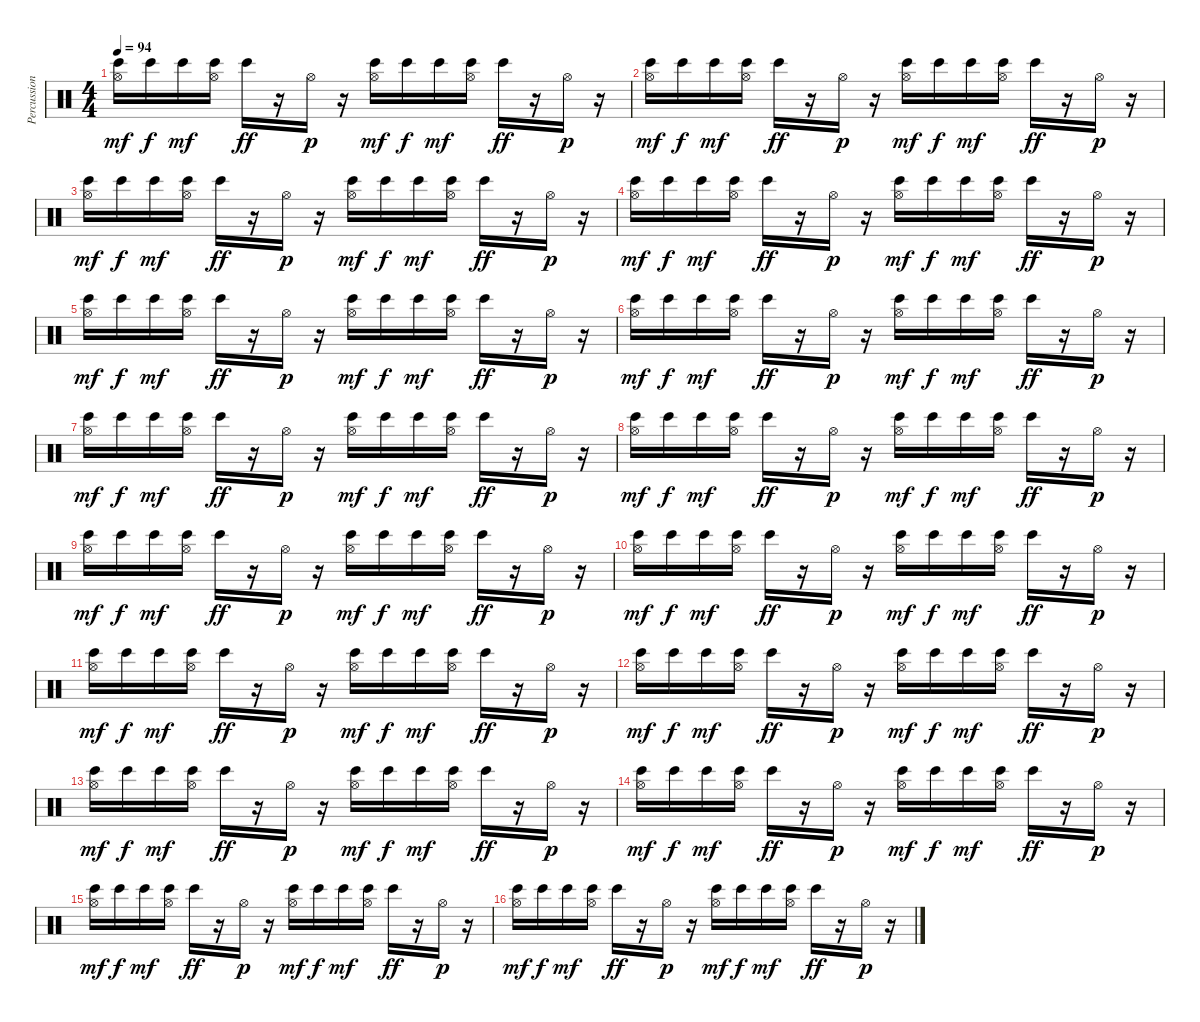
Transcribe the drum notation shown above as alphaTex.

\track ("Percussion Effekt" "Percussion") {instrument percussion}
\staff {score}
\articulation defaults
\ts (4 4)
\tempo 94
\clef neutral
\ks c
("Hi-Hat (open)" "Bongo High (hit)").16{dy mf} "Bongo High (hit)".16{dy f} "Bongo High (hit)".16{dy mf} ("Hi-Hat (open)" "Bongo High (hit)").16 "Bongo High (hit)".16{dy ff} r.16 "Hi-Hat (open)".16{dy p} r.16 ("Hi-Hat (open)" "Bongo High (hit)").16{dy mf} "Bongo High (hit)".16{dy f} "Bongo High (hit)".16{dy mf} ("Hi-Hat (open)" "Bongo High (hit)").16 "Bongo High (hit)".16{dy ff} r.16 "Hi-Hat (open)".16{dy p} r.16 |
("Hi-Hat (open)" "Bongo High (hit)").16{dy mf} "Bongo High (hit)".16{dy f} "Bongo High (hit)".16{dy mf} ("Hi-Hat (open)" "Bongo High (hit)").16 "Bongo High (hit)".16{dy ff} r.16 "Hi-Hat (open)".16{dy p} r.16 ("Hi-Hat (open)" "Bongo High (hit)").16{dy mf} "Bongo High (hit)".16{dy f} "Bongo High (hit)".16{dy mf} ("Hi-Hat (open)" "Bongo High (hit)").16 "Bongo High (hit)".16{dy ff} r.16 "Hi-Hat (open)".16{dy p} r.16 |
("Hi-Hat (open)" "Bongo High (hit)").16{dy mf} "Bongo High (hit)".16{dy f} "Bongo High (hit)".16{dy mf} ("Hi-Hat (open)" "Bongo High (hit)").16 "Bongo High (hit)".16{dy ff} r.16 "Hi-Hat (open)".16{dy p} r.16 ("Hi-Hat (open)" "Bongo High (hit)").16{dy mf} "Bongo High (hit)".16{dy f} "Bongo High (hit)".16{dy mf} ("Hi-Hat (open)" "Bongo High (hit)").16 "Bongo High (hit)".16{dy ff} r.16 "Hi-Hat (open)".16{dy p} r.16 |
("Hi-Hat (open)" "Bongo High (hit)").16{dy mf} "Bongo High (hit)".16{dy f} "Bongo High (hit)".16{dy mf} ("Hi-Hat (open)" "Bongo High (hit)").16 "Bongo High (hit)".16{dy ff} r.16 "Hi-Hat (open)".16{dy p} r.16 ("Hi-Hat (open)" "Bongo High (hit)").16{dy mf} "Bongo High (hit)".16{dy f} "Bongo High (hit)".16{dy mf} ("Hi-Hat (open)" "Bongo High (hit)").16 "Bongo High (hit)".16{dy ff} r.16 "Hi-Hat (open)".16{dy p} r.16 |
("Hi-Hat (open)" "Bongo High (hit)").16{dy mf} "Bongo High (hit)".16{dy f} "Bongo High (hit)".16{dy mf} ("Hi-Hat (open)" "Bongo High (hit)").16 "Bongo High (hit)".16{dy ff} r.16 "Hi-Hat (open)".16{dy p} r.16 ("Hi-Hat (open)" "Bongo High (hit)").16{dy mf} "Bongo High (hit)".16{dy f} "Bongo High (hit)".16{dy mf} ("Hi-Hat (open)" "Bongo High (hit)").16 "Bongo High (hit)".16{dy ff} r.16 "Hi-Hat (open)".16{dy p} r.16 |
("Hi-Hat (open)" "Bongo High (hit)").16{dy mf} "Bongo High (hit)".16{dy f} "Bongo High (hit)".16{dy mf} ("Hi-Hat (open)" "Bongo High (hit)").16 "Bongo High (hit)".16{dy ff} r.16 "Hi-Hat (open)".16{dy p} r.16 ("Hi-Hat (open)" "Bongo High (hit)").16{dy mf} "Bongo High (hit)".16{dy f} "Bongo High (hit)".16{dy mf} ("Hi-Hat (open)" "Bongo High (hit)").16 "Bongo High (hit)".16{dy ff} r.16 "Hi-Hat (open)".16{dy p} r.16 |
("Hi-Hat (open)" "Bongo High (hit)").16{dy mf} "Bongo High (hit)".16{dy f} "Bongo High (hit)".16{dy mf} ("Hi-Hat (open)" "Bongo High (hit)").16 "Bongo High (hit)".16{dy ff} r.16 "Hi-Hat (open)".16{dy p} r.16 ("Hi-Hat (open)" "Bongo High (hit)").16{dy mf} "Bongo High (hit)".16{dy f} "Bongo High (hit)".16{dy mf} ("Hi-Hat (open)" "Bongo High (hit)").16 "Bongo High (hit)".16{dy ff} r.16 "Hi-Hat (open)".16{dy p} r.16 |
("Hi-Hat (open)" "Bongo High (hit)").16{dy mf} "Bongo High (hit)".16{dy f} "Bongo High (hit)".16{dy mf} ("Hi-Hat (open)" "Bongo High (hit)").16 "Bongo High (hit)".16{dy ff} r.16 "Hi-Hat (open)".16{dy p} r.16 ("Hi-Hat (open)" "Bongo High (hit)").16{dy mf} "Bongo High (hit)".16{dy f} "Bongo High (hit)".16{dy mf} ("Hi-Hat (open)" "Bongo High (hit)").16 "Bongo High (hit)".16{dy ff} r.16 "Hi-Hat (open)".16{dy p} r.16 |
("Hi-Hat (open)" "Bongo High (hit)").16{dy mf} "Bongo High (hit)".16{dy f} "Bongo High (hit)".16{dy mf} ("Hi-Hat (open)" "Bongo High (hit)").16 "Bongo High (hit)".16{dy ff} r.16 "Hi-Hat (open)".16{dy p} r.16 ("Hi-Hat (open)" "Bongo High (hit)").16{dy mf} "Bongo High (hit)".16{dy f} "Bongo High (hit)".16{dy mf} ("Hi-Hat (open)" "Bongo High (hit)").16 "Bongo High (hit)".16{dy ff} r.16 "Hi-Hat (open)".16{dy p} r.16 |
("Hi-Hat (open)" "Bongo High (hit)").16{dy mf} "Bongo High (hit)".16{dy f} "Bongo High (hit)".16{dy mf} ("Hi-Hat (open)" "Bongo High (hit)").16 "Bongo High (hit)".16{dy ff} r.16 "Hi-Hat (open)".16{dy p} r.16 ("Hi-Hat (open)" "Bongo High (hit)").16{dy mf} "Bongo High (hit)".16{dy f} "Bongo High (hit)".16{dy mf} ("Hi-Hat (open)" "Bongo High (hit)").16 "Bongo High (hit)".16{dy ff} r.16 "Hi-Hat (open)".16{dy p} r.16 |
("Hi-Hat (open)" "Bongo High (hit)").16{dy mf} "Bongo High (hit)".16{dy f} "Bongo High (hit)".16{dy mf} ("Hi-Hat (open)" "Bongo High (hit)").16 "Bongo High (hit)".16{dy ff} r.16 "Hi-Hat (open)".16{dy p} r.16 ("Hi-Hat (open)" "Bongo High (hit)").16{dy mf} "Bongo High (hit)".16{dy f} "Bongo High (hit)".16{dy mf} ("Hi-Hat (open)" "Bongo High (hit)").16 "Bongo High (hit)".16{dy ff} r.16 "Hi-Hat (open)".16{dy p} r.16 |
("Hi-Hat (open)" "Bongo High (hit)").16{dy mf} "Bongo High (hit)".16{dy f} "Bongo High (hit)".16{dy mf} ("Hi-Hat (open)" "Bongo High (hit)").16 "Bongo High (hit)".16{dy ff} r.16 "Hi-Hat (open)".16{dy p} r.16 ("Hi-Hat (open)" "Bongo High (hit)").16{dy mf} "Bongo High (hit)".16{dy f} "Bongo High (hit)".16{dy mf} ("Hi-Hat (open)" "Bongo High (hit)").16 "Bongo High (hit)".16{dy ff} r.16 "Hi-Hat (open)".16{dy p} r.16 |
("Hi-Hat (open)" "Bongo High (hit)").16{dy mf} "Bongo High (hit)".16{dy f} "Bongo High (hit)".16{dy mf} ("Hi-Hat (open)" "Bongo High (hit)").16 "Bongo High (hit)".16{dy ff} r.16 "Hi-Hat (open)".16{dy p} r.16 ("Hi-Hat (open)" "Bongo High (hit)").16{dy mf} "Bongo High (hit)".16{dy f} "Bongo High (hit)".16{dy mf} ("Hi-Hat (open)" "Bongo High (hit)").16 "Bongo High (hit)".16{dy ff} r.16 "Hi-Hat (open)".16{dy p} r.16 |
("Hi-Hat (open)" "Bongo High (hit)").16{dy mf} "Bongo High (hit)".16{dy f} "Bongo High (hit)".16{dy mf} ("Hi-Hat (open)" "Bongo High (hit)").16 "Bongo High (hit)".16{dy ff} r.16 "Hi-Hat (open)".16{dy p} r.16 ("Hi-Hat (open)" "Bongo High (hit)").16{dy mf} "Bongo High (hit)".16{dy f} "Bongo High (hit)".16{dy mf} ("Hi-Hat (open)" "Bongo High (hit)").16 "Bongo High (hit)".16{dy ff} r.16 "Hi-Hat (open)".16{dy p} r.16 |
("Hi-Hat (open)" "Bongo High (hit)").16{dy mf} "Bongo High (hit)".16{dy f} "Bongo High (hit)".16{dy mf} ("Hi-Hat (open)" "Bongo High (hit)").16 "Bongo High (hit)".16{dy ff} r.16 "Hi-Hat (open)".16{dy p} r.16 ("Hi-Hat (open)" "Bongo High (hit)").16{dy mf} "Bongo High (hit)".16{dy f} "Bongo High (hit)".16{dy mf} ("Hi-Hat (open)" "Bongo High (hit)").16 "Bongo High (hit)".16{dy ff} r.16 "Hi-Hat (open)".16{dy p} r.16 |
("Hi-Hat (open)" "Bongo High (hit)").16{dy mf} "Bongo High (hit)".16{dy f} "Bongo High (hit)".16{dy mf} ("Hi-Hat (open)" "Bongo High (hit)").16 "Bongo High (hit)".16{dy ff} r.16 "Hi-Hat (open)".16{dy p} r.16 ("Hi-Hat (open)" "Bongo High (hit)").16{dy mf} "Bongo High (hit)".16{dy f} "Bongo High (hit)".16{dy mf} ("Hi-Hat (open)" "Bongo High (hit)").16 "Bongo High (hit)".16{dy ff} r.16 "Hi-Hat (open)".16{dy p} r.16
